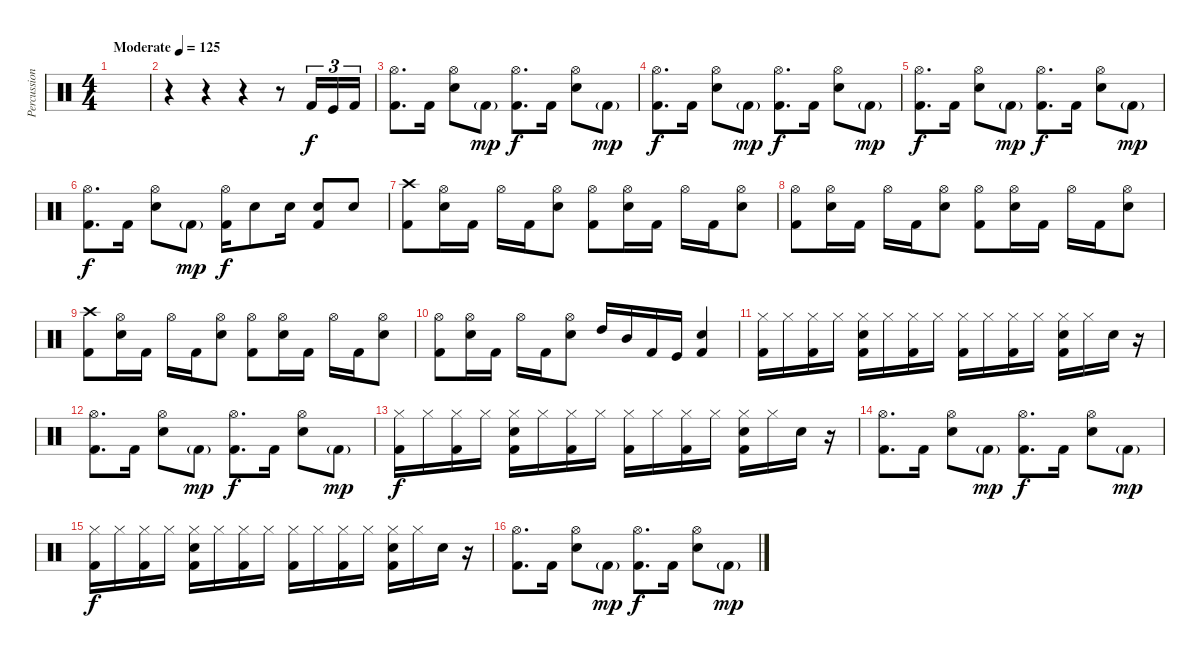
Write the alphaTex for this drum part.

\track ("Percussion" "Percussion") {instrument percussion}
\staff {score}
\articulation defaults
\ts (4 4)
\tempo (125 "Moderate")
\clef neutral
\ks c
|
r.4 r.4 r.4 r.8 "Kick (hit) 2".16{tu (3 2)} "Kick (hit)".16{tu (3 2)} "Kick (hit) 2".16{tu (3 2)} |
("Hi-Hat (open)" "Kick (hit) 2").8{d} "Kick (hit) 2".16 ("Hi-Hat (open)" "Electric Snare (hit)").8 "Kick (hit) 2"{g}.8{dy mp} ("Hi-Hat (open)" "Kick (hit) 2").8{d dy f} "Kick (hit) 2".16 ("Hi-Hat (open)" "Electric Snare (hit)").8 "Kick (hit) 2"{g}.8{dy mp} |
("Hi-Hat (open)" "Kick (hit) 2").8{d dy f} "Kick (hit) 2".16 ("Hi-Hat (open)" "Electric Snare (hit)").8 "Kick (hit) 2"{g}.8{dy mp} ("Hi-Hat (open)" "Kick (hit) 2").8{d dy f} "Kick (hit) 2".16 ("Hi-Hat (open)" "Electric Snare (hit)").8 "Kick (hit) 2"{g}.8{dy mp} |
("Hi-Hat (open)" "Kick (hit) 2").8{d dy f} "Kick (hit) 2".16 ("Hi-Hat (open)" "Electric Snare (hit)").8 "Kick (hit) 2"{g}.8{dy mp} ("Hi-Hat (open)" "Kick (hit) 2").8{d dy f} "Kick (hit) 2".16 ("Hi-Hat (open)" "Electric Snare (hit)").8 "Kick (hit) 2"{g}.8{dy mp} |
("Hi-Hat (open)" "Kick (hit) 2").8{d dy f} "Kick (hit) 2".16 ("Hi-Hat (open)" "Electric Snare (hit)").8 "Kick (hit) 2"{g}.8{dy mp} ("Hi-Hat (open)" "Kick (hit) 2").16{dy f} "Electric Snare (hit)".8 "Electric Snare (hit)".16 ("Electric Snare (hit)" "Kick (hit) 2").8 "Electric Snare (hit)".8 |
("Crash high (hit)" "Kick (hit) 2").8 ("Hi-Hat (open)" "Electric Snare (hit)").16 "Kick (hit) 2".16 "Hi-Hat (open)".16 "Kick (hit) 2".16 ("Hi-Hat (open)" "Electric Snare (hit)").8 ("Hi-Hat (open)" "Kick (hit) 2").8 ("Hi-Hat (open)" "Electric Snare (hit)").16 "Kick (hit) 2".16 "Hi-Hat (open)".16 "Kick (hit) 2".16 ("Hi-Hat (open)" "Electric Snare (hit)").8 |
("Hi-Hat (open)" "Kick (hit) 2").8 ("Hi-Hat (open)" "Electric Snare (hit)").16 "Kick (hit) 2".16 "Hi-Hat (open)".16 "Kick (hit) 2".16 ("Hi-Hat (open)" "Electric Snare (hit)").8 ("Hi-Hat (open)" "Kick (hit) 2").8 ("Hi-Hat (open)" "Electric Snare (hit)").16 "Kick (hit) 2".16 "Hi-Hat (open)".16 "Kick (hit) 2".16 ("Hi-Hat (open)" "Electric Snare (hit)").8 |
("Crash high (hit)" "Kick (hit) 2").8 ("Hi-Hat (open)" "Electric Snare (hit)").16 "Kick (hit) 2".16 "Hi-Hat (open)".16 "Kick (hit) 2".16 ("Hi-Hat (open)" "Electric Snare (hit)").8 ("Hi-Hat (open)" "Kick (hit) 2").8 ("Hi-Hat (open)" "Electric Snare (hit)").16 "Kick (hit) 2".16 "Hi-Hat (open)".16 "Kick (hit) 2".16 ("Hi-Hat (open)" "Electric Snare (hit)").8 |
("Hi-Hat (open)" "Kick (hit) 2").8 ("Hi-Hat (open)" "Electric Snare (hit)").16 "Kick (hit) 2".16 "Hi-Hat (open)".16 "Kick (hit) 2".16 ("Hi-Hat (open)" "Electric Snare (hit)").8 "High Tom (hit)".16 "Mid Tom (hit)".16 "Kick (hit) 2".16 "Kick (hit)".16 ("Electric Snare (hit)" "Kick (hit) 2").4 |
("Hi-Hat (closed)" "Kick (hit) 2").16 "Hi-Hat (closed)".16 ("Hi-Hat (closed)" "Kick (hit) 2").16 "Hi-Hat (closed)".16 ("Hi-Hat (closed)" "Electric Snare (hit)" "Kick (hit) 2").16 "Hi-Hat (closed)".16 ("Hi-Hat (closed)" "Kick (hit) 2").16 "Hi-Hat (closed)".16 ("Hi-Hat (closed)" "Kick (hit) 2").16 "Hi-Hat (closed)".16 ("Hi-Hat (closed)" "Kick (hit) 2").16 "Hi-Hat (closed)".16 ("Hi-Hat (closed)" "Electric Snare (hit)" "Kick (hit) 2").16 "Hi-Hat (closed)".16 "Electric Snare (hit)".16 r.16 |
("Hi-Hat (open)" "Kick (hit) 2").8{d} "Kick (hit) 2".16 ("Hi-Hat (open)" "Electric Snare (hit)").8 "Kick (hit) 2"{g}.8{dy mp} ("Hi-Hat (open)" "Kick (hit) 2").8{d dy f} "Kick (hit) 2".16 ("Hi-Hat (open)" "Electric Snare (hit)").8 "Kick (hit) 2"{g}.8{dy mp} |
("Hi-Hat (closed)" "Kick (hit) 2").16{dy f} "Hi-Hat (closed)".16 ("Hi-Hat (closed)" "Kick (hit) 2").16 "Hi-Hat (closed)".16 ("Hi-Hat (closed)" "Electric Snare (hit)" "Kick (hit) 2").16 "Hi-Hat (closed)".16 ("Hi-Hat (closed)" "Kick (hit) 2").16 "Hi-Hat (closed)".16 ("Hi-Hat (closed)" "Kick (hit) 2").16 "Hi-Hat (closed)".16 ("Hi-Hat (closed)" "Kick (hit) 2").16 "Hi-Hat (closed)".16 ("Hi-Hat (closed)" "Electric Snare (hit)" "Kick (hit) 2").16 "Hi-Hat (closed)".16 "Electric Snare (hit)".16 r.16 |
("Hi-Hat (open)" "Kick (hit) 2").8{d} "Kick (hit) 2".16 ("Hi-Hat (open)" "Electric Snare (hit)").8 "Kick (hit) 2"{g}.8{dy mp} ("Hi-Hat (open)" "Kick (hit) 2").8{d dy f} "Kick (hit) 2".16 ("Hi-Hat (open)" "Electric Snare (hit)").8 "Kick (hit) 2"{g}.8{dy mp} |
("Hi-Hat (closed)" "Kick (hit) 2").16{dy f} "Hi-Hat (closed)".16 ("Hi-Hat (closed)" "Kick (hit) 2").16 "Hi-Hat (closed)".16 ("Hi-Hat (closed)" "Electric Snare (hit)" "Kick (hit) 2").16 "Hi-Hat (closed)".16 ("Hi-Hat (closed)" "Kick (hit) 2").16 "Hi-Hat (closed)".16 ("Hi-Hat (closed)" "Kick (hit) 2").16 "Hi-Hat (closed)".16 ("Hi-Hat (closed)" "Kick (hit) 2").16 "Hi-Hat (closed)".16 ("Hi-Hat (closed)" "Electric Snare (hit)" "Kick (hit) 2").16 "Hi-Hat (closed)".16 "Electric Snare (hit)".16 r.16 |
("Hi-Hat (open)" "Kick (hit) 2").8{d} "Kick (hit) 2".16 ("Hi-Hat (open)" "Electric Snare (hit)").8 "Kick (hit) 2"{g}.8{dy mp} ("Hi-Hat (open)" "Kick (hit) 2").8{d dy f} "Kick (hit) 2".16 ("Hi-Hat (open)" "Electric Snare (hit)").8 "Kick (hit) 2"{g}.8{dy mp}
